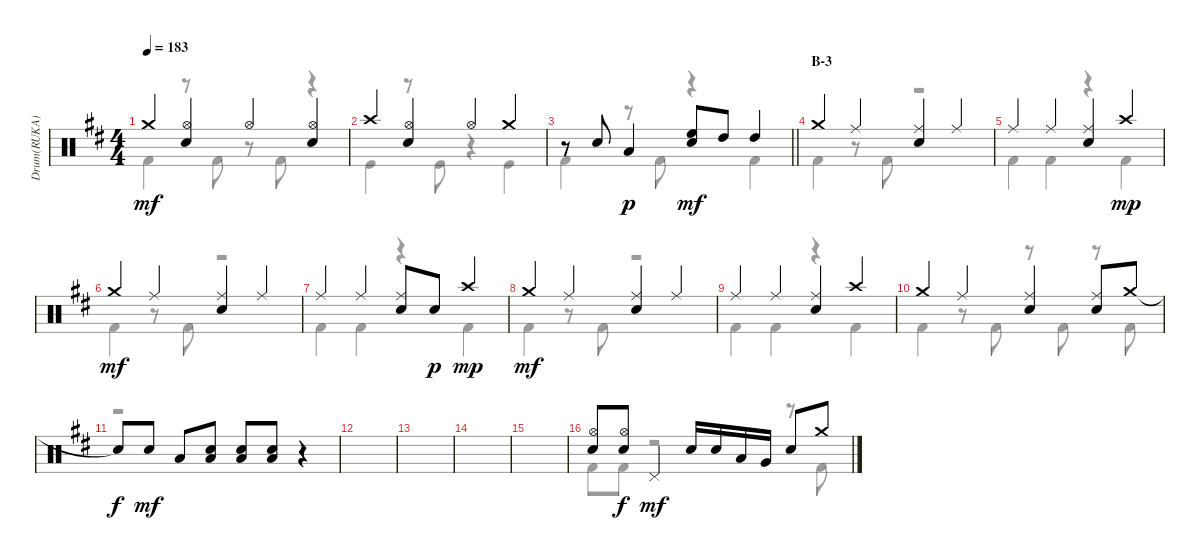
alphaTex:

\track ("Drum(RUKA)" "Drum(RUKA)") {instrument percussion}
\staff {score}
\articulation defaults
\voice
\ts (4 4)
\tempo 183
\clef neutral
\ks d "Crash medium (hit)".4{dy mf}
("Hi-Hat (open)" "Snare (hit) 2").4 "Hi-Hat (open)".4 ("Hi-Hat (open)" "Snare (hit) 2").4 |
"Crash high (hit)".4 ("Hi-Hat (open)" "Snare (hit) 2").4 "Hi-Hat (open)".4 "Crash medium (hit)".4 |
\barLineRight lightlight
r.8 "Snare (hit) 2".8 "Low Tom (hit)".4{dy p} ("Snare (hit) 2" "High Floor Tom (hit)").8{dy mf} "High Tom (hit)".8 "High Tom (hit)".4 |
\section ("" "B-3")
"Crash medium (hit)".4 "Ride (middle)".4 ("Ride (middle)" "Snare (hit) 2").4 "Ride (middle)".4 |
"Ride (middle)".4 "Ride (middle)".4 ("Ride (middle)" "Snare (hit) 2").4 "Crash high (hit)".4{dy mp} |
"Crash medium (hit)".4{dy mf} "Ride (middle)".4 ("Ride (middle)" "Snare (hit) 2").4 "Ride (middle)".4 |
"Ride (middle)".4 "Ride (middle)".4 ("Ride (middle)" "Snare (hit) 2").8 "Snare (hit) 2".8{dy p} "Crash high (hit)".4{dy mp} |
"Crash medium (hit)".4{dy mf} "Ride (middle)".4 ("Ride (middle)" "Snare (hit) 2").4 "Ride (middle)".4 |
"Ride (middle)".4 "Ride (middle)".4 ("Ride (middle)" "Snare (hit) 2").4 "Crash high (hit)".4 |
"Crash medium (hit)".4 "Ride (middle)".4 ("Ride (middle)" "Snare (hit) 2").4 ("Ride (middle)" "Snare (hit) 2").8 "Crash medium (hit)".8 |
"Snare (hit)"{t}.8{dy f} "Snare (hit) 2".8{dy mf} "Low Tom (hit)".8 ("Snare (hit) 2" "Low Tom (hit)").8 ("Snare (hit) 2" "Low Tom (hit)").8 ("Snare (hit) 2" "Low Tom (hit)").8 r.4 |
|
|
|
|
("Hi-Hat (open)" "Snare (hit) 2").8 ("Hi-Hat (open)" "Snare (hit) 2").8{dy f} "Pedal Hi-Hat (hit)".4{dy mf} "Snare (hit) 2".16 "Snare (hit) 2".16 "Low Tom (hit)".16 "Very Low Tom (hit)".16 "Snare (hit) 2".8 "Crash medium (hit)".8
\voice
\clef neutral
\ottava regular
\simile none
\ks d "Kick (hit) 2".4{dy mf}
r.8 "Kick (hit) 2".8 r.8 "Kick (hit) 2".8 r.4 |
"Kick (hit)".4 r.8 "Kick (hit)".8 r.4 "Kick (hit)".4 |
\barLineRight lightlight "Kick (hit) 2".4
r.8 "Kick (hit) 2".8 r.4 "Kick (hit) 2".4 |
"Kick (hit) 2".4 r.8 "Kick (hit) 2".8 r.2 |
"Kick (hit) 2".4 "Kick (hit) 2".4 r.4 "Kick (hit) 2".4 |
"Kick (hit) 2".4 r.8 "Kick (hit) 2".8 r.2 |
"Kick (hit) 2".4 "Kick (hit) 2".4 r.4 "Kick (hit) 2".4 |
"Kick (hit) 2".4 r.8 "Kick (hit) 2".8 r.2 |
"Kick (hit) 2".4 "Kick (hit) 2".4 r.4 "Kick (hit) 2".4 |
"Kick (hit) 2".4 r.8 "Kick (hit) 2".8 r.8 "Kick (hit) 2".8 r.8 "Kick (hit) 2".8 |
r.1 |
|
|
|
|
"Kick (hit) 2".8 "Kick (hit) 2".8{dy f} r.2 r.8 "Kick (hit) 2".8
